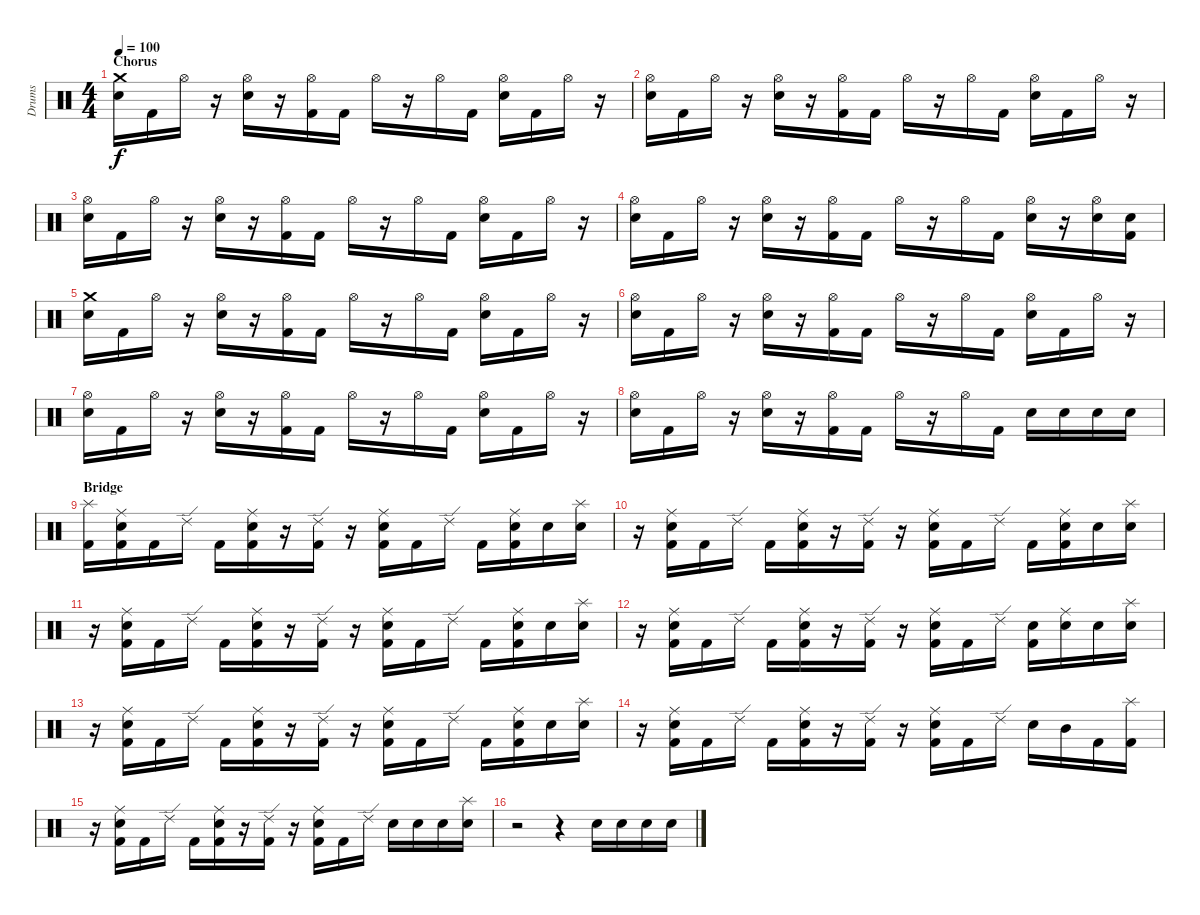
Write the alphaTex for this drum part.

\track ("Drums" "Drums") {instrument percussion}
\staff {score}
\articulation defaults
\ts (4 4)
\section ("" "Chorus")
\tempo 100
\clef neutral
\ks c
("Crash medium (hit)" "Snare (hit) 2").16{dy f} "Kick (hit) 2".16 "Hi-Hat (open)".16 r.16 ("Hi-Hat (open)" "Snare (hit) 2").16 r.16 ("Hi-Hat (open)" "Kick (hit) 2").16 "Kick (hit) 2".16 "Hi-Hat (open)".16 r.16 "Hi-Hat (open)".16 "Kick (hit) 2".16 ("Hi-Hat (open)" "Snare (hit) 2").16 "Kick (hit) 2".16 "Hi-Hat (open)".16 r.16 |
("Hi-Hat (open)" "Snare (hit) 2").16 "Kick (hit) 2".16 "Hi-Hat (open)".16 r.16 ("Hi-Hat (open)" "Snare (hit) 2").16 r.16 ("Hi-Hat (open)" "Kick (hit) 2").16 "Kick (hit) 2".16 "Hi-Hat (open)".16 r.16 "Hi-Hat (open)".16 "Kick (hit) 2".16 ("Hi-Hat (open)" "Snare (hit) 2").16 "Kick (hit) 2".16 "Hi-Hat (open)".16 r.16 |
("Hi-Hat (open)" "Snare (hit) 2").16 "Kick (hit) 2".16 "Hi-Hat (open)".16 r.16 ("Hi-Hat (open)" "Snare (hit) 2").16 r.16 ("Hi-Hat (open)" "Kick (hit) 2").16 "Kick (hit) 2".16 "Hi-Hat (open)".16 r.16 "Hi-Hat (open)".16 "Kick (hit) 2".16 ("Hi-Hat (open)" "Snare (hit) 2").16 "Kick (hit) 2".16 "Hi-Hat (open)".16 r.16 |
("Hi-Hat (open)" "Snare (hit) 2").16 "Kick (hit) 2".16 "Hi-Hat (open)".16 r.16 ("Hi-Hat (open)" "Snare (hit) 2").16 r.16 ("Hi-Hat (open)" "Kick (hit) 2").16 "Kick (hit) 2".16 "Hi-Hat (open)".16 r.16 "Hi-Hat (open)".16 "Kick (hit) 2".16 ("Hi-Hat (open)" "Snare (hit) 2").16 r.16 ("Hi-Hat (open)" "Snare (hit) 2").16 ("Snare (hit) 2" "Kick (hit) 2").16 |
("Crash medium (hit)" "Snare (hit) 2").16 "Kick (hit) 2".16 "Hi-Hat (open)".16 r.16 ("Hi-Hat (open)" "Snare (hit) 2").16 r.16 ("Hi-Hat (open)" "Kick (hit) 2").16 "Kick (hit) 2".16 "Hi-Hat (open)".16 r.16 "Hi-Hat (open)".16 "Kick (hit) 2".16 ("Hi-Hat (open)" "Snare (hit) 2").16 "Kick (hit) 2".16 "Hi-Hat (open)".16 r.16 |
("Hi-Hat (open)" "Snare (hit) 2").16 "Kick (hit) 2".16 "Hi-Hat (open)".16 r.16 ("Hi-Hat (open)" "Snare (hit) 2").16 r.16 ("Hi-Hat (open)" "Kick (hit) 2").16 "Kick (hit) 2".16 "Hi-Hat (open)".16 r.16 "Hi-Hat (open)".16 "Kick (hit) 2".16 ("Hi-Hat (open)" "Snare (hit) 2").16 "Kick (hit) 2".16 "Hi-Hat (open)".16 r.16 |
("Hi-Hat (open)" "Snare (hit) 2").16 "Kick (hit) 2".16 "Hi-Hat (open)".16 r.16 ("Hi-Hat (open)" "Snare (hit) 2").16 r.16 ("Hi-Hat (open)" "Kick (hit) 2").16 "Kick (hit) 2".16 "Hi-Hat (open)".16 r.16 "Hi-Hat (open)".16 "Kick (hit) 2".16 ("Hi-Hat (open)" "Snare (hit) 2").16 "Kick (hit) 2".16 "Hi-Hat (open)".16 r.16 |
("Hi-Hat (open)" "Snare (hit) 2").16 "Kick (hit) 2".16 "Hi-Hat (open)".16 r.16 ("Hi-Hat (open)" "Snare (hit) 2").16 r.16 ("Hi-Hat (open)" "Kick (hit) 2").16 "Kick (hit) 2".16 "Hi-Hat (open)".16 r.16 "Hi-Hat (open)".16 "Kick (hit) 2".16 "Snare (hit) 2".16 "Snare (hit) 2".16 "Snare (hit) 2".16 "Snare (hit) 2".16 |
\section ("" "Bridge")
("Splash (hit)" "Kick (hit) 2").16 ("Ride (middle)" "Snare (hit) 2" "Kick (hit) 2").16 "Kick (hit) 2".16 "Ride (edge) 2".16 "Kick (hit) 2".16 ("Ride (middle)" "Snare (hit) 2" "Kick (hit) 2").16 r.16 ("Ride (edge) 2" "Kick (hit) 2").16 r.16 ("Ride (middle)" "Snare (hit) 2" "Kick (hit) 2").16 "Kick (hit) 2".16 "Ride (edge) 2".16 "Kick (hit) 2".16 ("Ride (middle)" "Snare (hit) 2" "Kick (hit) 2").16 "Snare (hit) 2".16 ("Splash (hit)" "Snare (hit) 2").16 |
r.16 ("Ride (middle)" "Snare (hit) 2" "Kick (hit) 2").16 "Kick (hit) 2".16 "Ride (edge) 2".16 "Kick (hit) 2".16 ("Ride (middle)" "Snare (hit) 2" "Kick (hit) 2").16 r.16 ("Ride (edge) 2" "Kick (hit) 2").16 r.16 ("Ride (middle)" "Snare (hit) 2" "Kick (hit) 2").16 "Kick (hit) 2".16 "Ride (edge) 2".16 "Kick (hit) 2".16 ("Ride (middle)" "Snare (hit) 2" "Kick (hit) 2").16 "Snare (hit) 2".16 ("Splash (hit)" "Snare (hit) 2").16 |
r.16 ("Ride (middle)" "Snare (hit) 2" "Kick (hit) 2").16 "Kick (hit) 2".16 "Ride (edge) 2".16 "Kick (hit) 2".16 ("Ride (middle)" "Snare (hit) 2" "Kick (hit) 2").16 r.16 ("Ride (edge) 2" "Kick (hit) 2").16 r.16 ("Ride (middle)" "Snare (hit) 2" "Kick (hit) 2").16 "Kick (hit) 2".16 "Ride (edge) 2".16 "Kick (hit) 2".16 ("Ride (middle)" "Snare (hit) 2" "Kick (hit) 2").16 "Snare (hit) 2".16 ("Splash (hit)" "Snare (hit) 2").16 |
r.16 ("Ride (middle)" "Snare (hit) 2" "Kick (hit) 2").16 "Kick (hit) 2".16 "Ride (edge) 2".16 "Kick (hit) 2".16 ("Ride (middle)" "Snare (hit) 2" "Kick (hit) 2").16 r.16 ("Ride (edge) 2" "Kick (hit) 2").16 r.16 ("Ride (middle)" "Snare (hit) 2" "Kick (hit) 2").16 "Kick (hit) 2".16 "Ride (edge) 2".16 ("Snare (hit) 2" "Kick (hit) 2").16 ("Ride (middle)" "Snare (hit) 2").16 "Snare (hit) 2".16 ("Splash (hit)" "Snare (hit) 2").16 |
r.16 ("Ride (middle)" "Snare (hit) 2" "Kick (hit) 2").16 "Kick (hit) 2".16 "Ride (edge) 2".16 "Kick (hit) 2".16 ("Ride (middle)" "Snare (hit) 2" "Kick (hit) 2").16 r.16 ("Ride (edge) 2" "Kick (hit) 2").16 r.16 ("Ride (middle)" "Snare (hit) 2" "Kick (hit) 2").16 "Kick (hit) 2".16 "Ride (edge) 2".16 "Kick (hit) 2".16 ("Ride (middle)" "Snare (hit) 2" "Kick (hit) 2").16 "Snare (hit) 2".16 ("Splash (hit)" "Snare (hit) 2").16 |
r.16 ("Ride (middle)" "Snare (hit) 2" "Kick (hit) 2").16 "Kick (hit) 2".16 "Ride (edge) 2".16 "Kick (hit) 2".16 ("Ride (middle)" "Snare (hit) 2" "Kick (hit) 2").16 r.16 ("Ride (edge) 2" "Kick (hit) 2").16 r.16 ("Ride (middle)" "Snare (hit) 2" "Kick (hit) 2").16 "Kick (hit) 2".16 "Ride (edge) 2".16 "Snare (hit) 2".16 "Mid Tom (hit)".16 "Kick (hit) 2".16 ("Splash (hit)" "Kick (hit) 2").16 |
r.16 ("Ride (middle)" "Snare (hit) 2" "Kick (hit) 2").16 "Kick (hit) 2".16 "Ride (edge) 2".16 "Kick (hit) 2".16 ("Ride (middle)" "Snare (hit) 2" "Kick (hit) 2").16 r.16 ("Ride (edge) 2" "Kick (hit) 2").16 r.16 ("Ride (middle)" "Snare (hit) 2" "Kick (hit) 2").16 "Kick (hit) 2".16 "Ride (edge) 2".16 "Snare (hit) 2".16 "Snare (hit) 2".16 "Snare (hit) 2".16 ("Splash (hit)" "Snare (hit) 2").16 |
r.2 r.4 "Snare (hit) 2".16 "Snare (hit) 2".16 "Snare (hit) 2".16 "Snare (hit) 2".16
